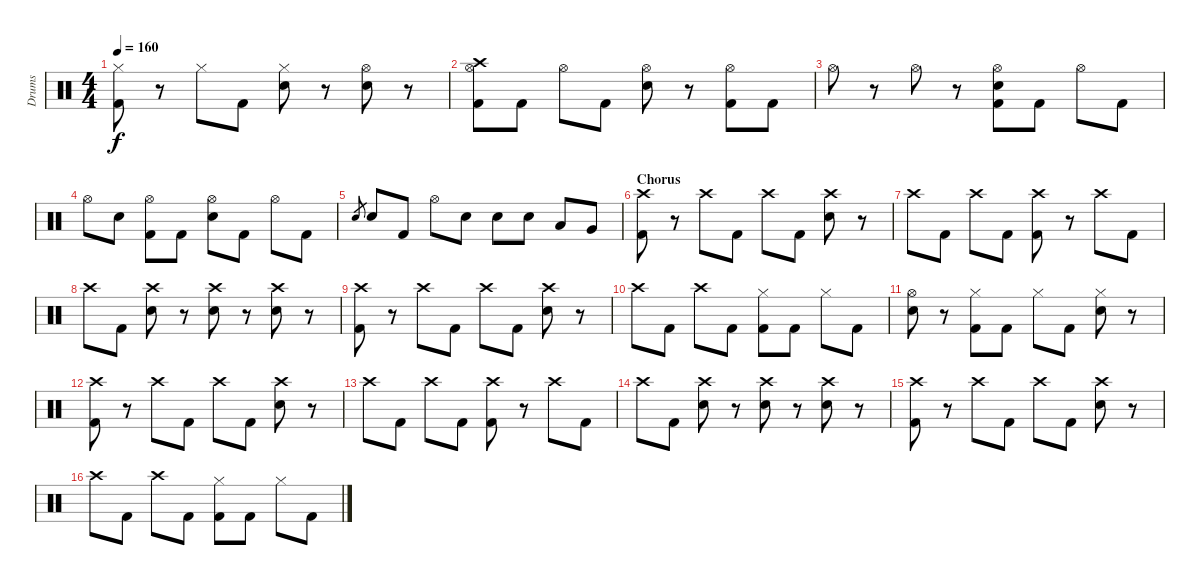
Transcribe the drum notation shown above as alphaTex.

\track ("Drums" "Drums") {instrument percussion}
\staff {score}
\articulation defaults
\ts (4 4)
\tempo 160
\clef neutral
\ks c
("Kick (hit) 2" "Hi-Hat (closed)").8{dy f} r.8 "Hi-Hat (closed)".8 "Kick (hit) 2".8 ("Electric Snare (hit)" "Hi-Hat (closed)").8 r.8 ("Electric Snare (hit)" "Hi-Hat (open)").8 r.8 |
("Kick (hit) 2" "Crash high (hit)" "Hi-Hat (open)").8 "Kick (hit) 2".8 "Hi-Hat (open)".8 "Kick (hit) 2".8 ("Electric Snare (hit)" "Hi-Hat (open)").8 r.8 ("Kick (hit) 2" "Hi-Hat (open)").8 "Kick (hit) 2".8 |
"Hi-Hat (open)".8 r.8 "Hi-Hat (open)".8 r.8 ("Electric Snare (hit)" "Kick (hit) 2" "Hi-Hat (open)").8 "Kick (hit) 2".8 "Hi-Hat (open)".8 "Kick (hit) 2".8 |
"Hi-Hat (open)".8 "Electric Snare (hit)".8 ("Kick (hit) 2" "Hi-Hat (open)").8 "Kick (hit) 2".8 ("Electric Snare (hit)" "Hi-Hat (open)").8 "Kick (hit) 2".8 "Hi-Hat (open)".8 "Kick (hit) 2".8 |
"Electric Snare (hit)".8{gr} "Electric Snare (hit)".8 "Kick (hit) 2".8 "Hi-Hat (open)".8 "Electric Snare (hit)".8 "Electric Snare (hit)".8 "Electric Snare (hit)".8 "Low Tom (hit)".8 "Very Low Tom (hit)".8 |
\section ("" "Chorus")
("Kick (hit) 2" "Crash high (hit)").8 r.8 "Crash high (hit)".8 "Kick (hit) 2".8 "Crash high (hit)".8 "Kick (hit) 2".8 ("Electric Snare (hit)" "Crash high (hit)").8 r.8 |
"Crash high (hit)".8 "Kick (hit) 2".8 "Crash high (hit)".8 "Kick (hit) 2".8 ("Kick (hit) 2" "Crash high (hit)").8 r.8 "Crash high (hit)".8 "Kick (hit) 2".8 |
"Crash high (hit)".8 "Kick (hit) 2".8 ("Electric Snare (hit)" "Crash high (hit)").8 r.8 ("Electric Snare (hit)" "Crash high (hit)").8 r.8 ("Electric Snare (hit)" "Crash high (hit)").8 r.8 |
("Kick (hit) 2" "Crash high (hit)").8 r.8 "Crash high (hit)".8 "Kick (hit) 2".8 "Crash high (hit)".8 "Kick (hit) 2".8 ("Electric Snare (hit)" "Crash high (hit)").8 r.8 |
"Crash high (hit)".8 "Kick (hit) 2".8 "Crash high (hit)".8 "Kick (hit) 2".8 ("Kick (hit) 2" "Hi-Hat (closed)").8 "Kick (hit) 2".8 "Hi-Hat (closed)".8 "Kick (hit) 2".8 |
("Electric Snare (hit)" "Hi-Hat (open)").8 r.8 ("Kick (hit) 2" "Hi-Hat (closed)").8 "Kick (hit) 2".8 "Hi-Hat (closed)".8 "Kick (hit) 2".8 ("Electric Snare (hit)" "Hi-Hat (closed)").8 r.8 |
("Kick (hit) 2" "Crash high (hit)").8 r.8 "Crash high (hit)".8 "Kick (hit) 2".8 "Crash high (hit)".8 "Kick (hit) 2".8 ("Electric Snare (hit)" "Crash high (hit)").8 r.8 |
"Crash high (hit)".8 "Kick (hit) 2".8 "Crash high (hit)".8 "Kick (hit) 2".8 ("Kick (hit) 2" "Crash high (hit)").8 r.8 "Crash high (hit)".8 "Kick (hit) 2".8 |
"Crash high (hit)".8 "Kick (hit) 2".8 ("Electric Snare (hit)" "Crash high (hit)").8 r.8 ("Electric Snare (hit)" "Crash high (hit)").8 r.8 ("Electric Snare (hit)" "Crash high (hit)").8 r.8 |
("Kick (hit) 2" "Crash high (hit)").8 r.8 "Crash high (hit)".8 "Kick (hit) 2".8 "Crash high (hit)".8 "Kick (hit) 2".8 ("Electric Snare (hit)" "Crash high (hit)").8 r.8 |
"Crash high (hit)".8 "Kick (hit) 2".8 "Crash high (hit)".8 "Kick (hit) 2".8 ("Kick (hit) 2" "Hi-Hat (closed)").8 "Kick (hit) 2".8 "Hi-Hat (closed)".8 "Kick (hit) 2".8
